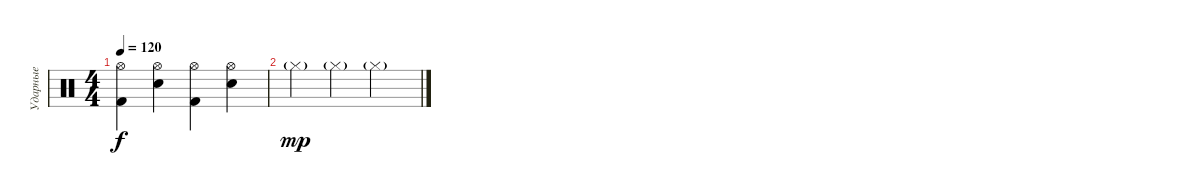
\track ("Ударные" "Ударные") {instrument percussion}
\staff {score}
\articulation defaults
\ts (4 4)
\tempo 120
\clef neutral
\ks c
("Kick (hit) 2" "Hi-Hat (open)").4{dy f} ("Electric Snare (hit)" "Hi-Hat (open)").4 ("Kick (hit) 2" "Hi-Hat (open)").4 ("Electric Snare (hit)" "Hi-Hat (open)").4 |
"Hi-Hat (closed)"{g}.4{dy mp} "Hi-Hat (closed)"{g}.4 "Hi-Hat (closed)"{g}.2
